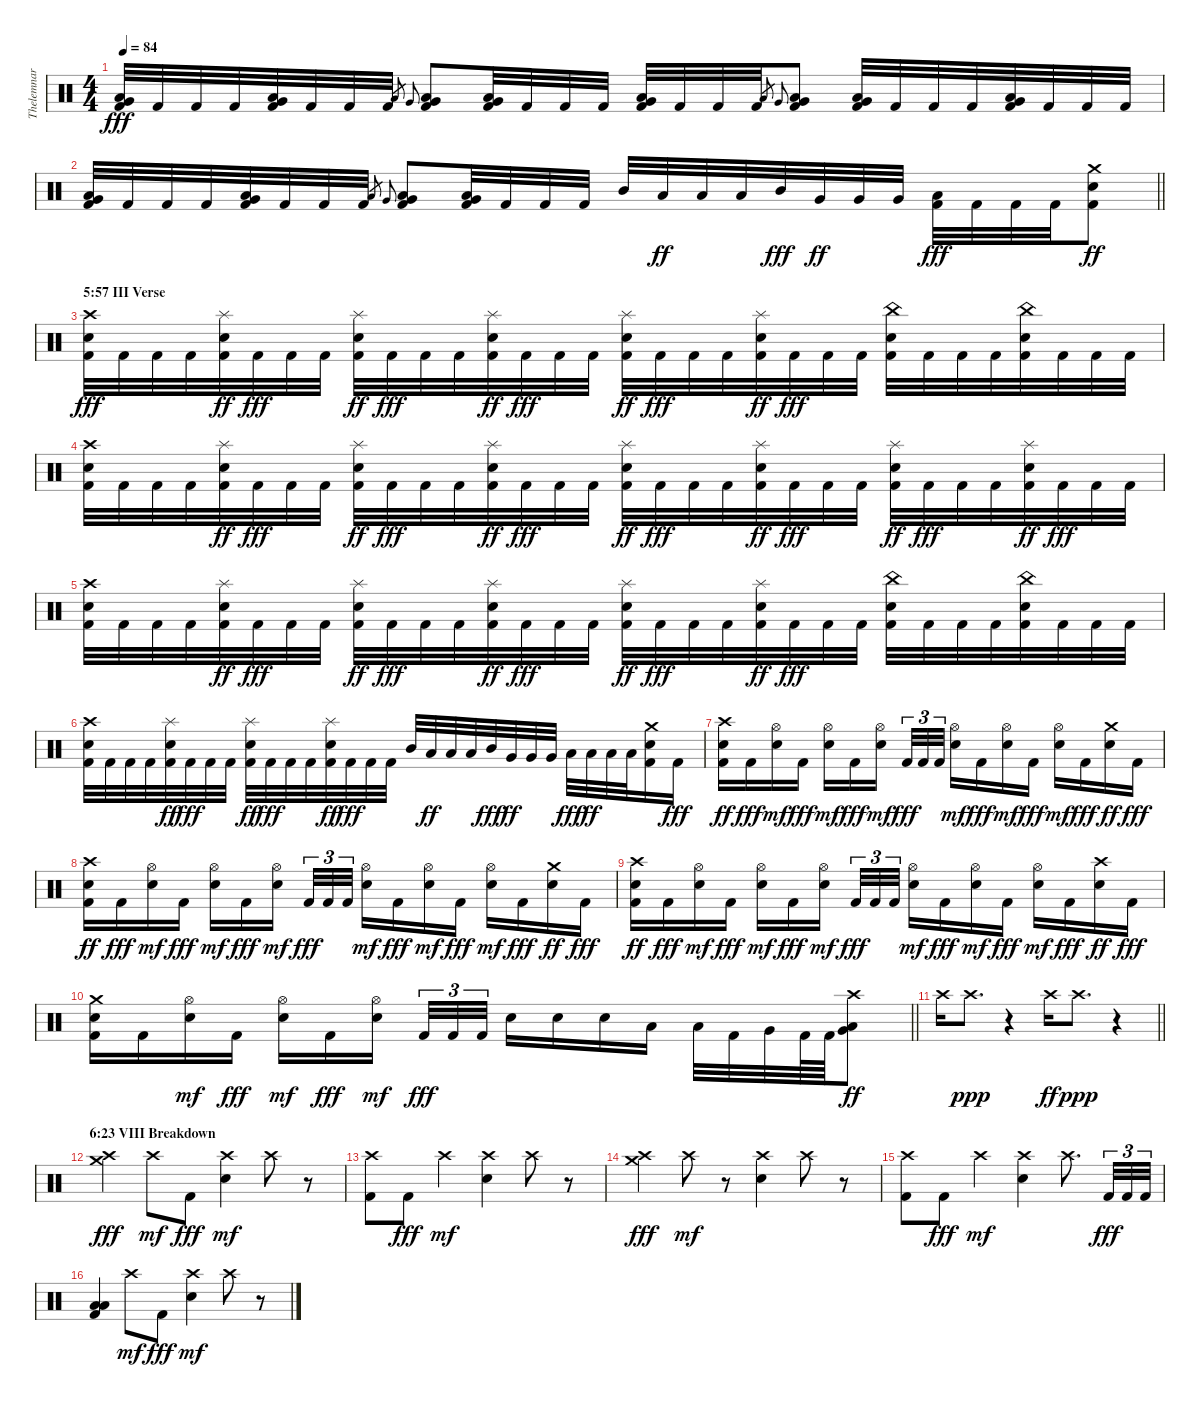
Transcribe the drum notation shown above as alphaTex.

\track ("Thelemnar (Drums)" "Thelemnar ") {instrument percussion}
\staff {score}
\articulation defaults
\ts (4 4)
\tempo 84
\clef neutral
\ks c
("Kick (hit) 2" "Low Floor Tom (hit)" "Very Low Tom (hit)").32{dy fff} "Kick (hit) 2".32 "Kick (hit) 2".32 "Kick (hit) 2".32 ("Kick (hit) 2" "Low Floor Tom (hit)" "Very Low Tom (hit)").32 "Kick (hit) 2".32 "Kick (hit) 2".32 "Kick (hit) 2".32 "Low Tom (hit)".16{gr} "Very Low Tom (hit)".16{gr onbeat} ("Kick (hit) 2" "Low Tom (hit)" "Very Low Tom (hit)").8 ("Kick (hit) 2" "Low Floor Tom (hit)" "Very Low Tom (hit)").32 "Kick (hit) 2".32 "Kick (hit) 2".32 "Kick (hit) 2".32 ("Kick (hit) 2" "Low Floor Tom (hit)" "Very Low Tom (hit)").32 "Kick (hit) 2".32 "Kick (hit) 2".32 "Kick (hit) 2".32 "Low Tom (hit)".16{gr} "Very Low Tom (hit)".16{gr onbeat} ("Kick (hit) 2" "Low Tom (hit)" "Very Low Tom (hit)").8 ("Kick (hit) 2" "Low Floor Tom (hit)" "Very Low Tom (hit)").32 "Kick (hit) 2".32 "Kick (hit) 2".32 "Kick (hit) 2".32 ("Kick (hit) 2" "Low Tom (hit)" "Very Low Tom (hit)").32 "Kick (hit) 2".32 "Kick (hit) 2".32 "Kick (hit) 2".32 |
\barLineRight lightlight
("Kick (hit) 2" "Low Floor Tom (hit)" "Very Low Tom (hit)").32 "Kick (hit) 2".32 "Kick (hit) 2".32 "Kick (hit) 2".32 ("Kick (hit) 2" "Low Floor Tom (hit)" "Very Low Tom (hit)").32 "Kick (hit) 2".32 "Kick (hit) 2".32 "Kick (hit) 2".32 "Low Tom (hit)".16{gr} "Very Low Tom (hit)".16{gr onbeat} ("Kick (hit) 2" "Low Tom (hit)" "Very Low Tom (hit)").8 ("Kick (hit) 2" "Low Floor Tom (hit)" "Very Low Tom (hit)").32 "Kick (hit) 2".32 "Kick (hit) 2".32 "Kick (hit) 2".32 "Mid Tom (hit)".32 "Low Tom (hit)".32{dy ff} "Low Tom (hit)".32 "Low Tom (hit)".32 "Mid Tom (hit)".32{dy fff} "Very Low Tom (hit)".32{dy ff} "Very Low Tom (hit)".32 "Very Low Tom (hit)".32 ("Kick (hit) 2" "Low Tom (hit)").32{dy fff} "Kick (hit) 2".32 "Kick (hit) 2".32 "Kick (hit) 2".32 ("Kick (hit) 2" "Electric Snare (hit)" "Crash medium (hit)").8{dy ff} |
\section ("" "5:57 III Verse")
("Kick (hit) 2" "Electric Snare (hit)" "Crash high (hit)").32{dy fff} "Kick (hit) 2".32 "Kick (hit) 2".32 "Kick (hit) 2".32 ("Kick (hit) 2" "Electric Snare (hit)" "Splash (hit)").32{dy ff} "Kick (hit) 2".32{dy fff} "Kick (hit) 2".32 "Kick (hit) 2".32 ("Kick (hit) 2" "Electric Snare (hit)" "Splash (hit)").32{dy ff} "Kick (hit) 2".32{dy fff} "Kick (hit) 2".32 "Kick (hit) 2".32 ("Kick (hit) 2" "Electric Snare (hit)" "Splash (hit)").32{dy ff} "Kick (hit) 2".32{dy fff} "Kick (hit) 2".32 "Kick (hit) 2".32 ("Kick (hit) 2" "Electric Snare (hit)" "Splash (hit)").32{dy ff} "Kick (hit) 2".32{dy fff} "Kick (hit) 2".32 "Kick (hit) 2".32 ("Kick (hit) 2" "Electric Snare (hit)" "Splash (hit)").32{dy ff} "Kick (hit) 2".32{dy fff} "Kick (hit) 2".32 "Kick (hit) 2".32 ("Kick (hit) 2" "Electric Snare (hit)" "China (hit)").32 "Kick (hit) 2".32 "Kick (hit) 2".32 "Kick (hit) 2".32 ("Kick (hit) 2" "Electric Snare (hit)" "China (hit)").32 "Kick (hit) 2".32 "Kick (hit) 2".32 "Kick (hit) 2".32 |
("Kick (hit) 2" "Electric Snare (hit)" "Crash high (hit)").32 "Kick (hit) 2".32 "Kick (hit) 2".32 "Kick (hit) 2".32 ("Kick (hit) 2" "Electric Snare (hit)" "Splash (hit)").32{dy ff} "Kick (hit) 2".32{dy fff} "Kick (hit) 2".32 "Kick (hit) 2".32 ("Kick (hit) 2" "Electric Snare (hit)" "Splash (hit)").32{dy ff} "Kick (hit) 2".32{dy fff} "Kick (hit) 2".32 "Kick (hit) 2".32 ("Kick (hit) 2" "Electric Snare (hit)" "Splash (hit)").32{dy ff} "Kick (hit) 2".32{dy fff} "Kick (hit) 2".32 "Kick (hit) 2".32 ("Kick (hit) 2" "Electric Snare (hit)" "Splash (hit)").32{dy ff} "Kick (hit) 2".32{dy fff} "Kick (hit) 2".32 "Kick (hit) 2".32 ("Kick (hit) 2" "Electric Snare (hit)" "Splash (hit)").32{dy ff} "Kick (hit) 2".32{dy fff} "Kick (hit) 2".32 "Kick (hit) 2".32 ("Kick (hit) 2" "Electric Snare (hit)" "Splash (hit)").32{dy ff} "Kick (hit) 2".32{dy fff} "Kick (hit) 2".32 "Kick (hit) 2".32 ("Kick (hit) 2" "Electric Snare (hit)" "Splash (hit)").32{dy ff} "Kick (hit) 2".32{dy fff} "Kick (hit) 2".32 "Kick (hit) 2".32 |
("Kick (hit) 2" "Electric Snare (hit)" "Crash high (hit)").32 "Kick (hit) 2".32 "Kick (hit) 2".32 "Kick (hit) 2".32 ("Kick (hit) 2" "Electric Snare (hit)" "Splash (hit)").32{dy ff} "Kick (hit) 2".32{dy fff} "Kick (hit) 2".32 "Kick (hit) 2".32 ("Kick (hit) 2" "Electric Snare (hit)" "Splash (hit)").32{dy ff} "Kick (hit) 2".32{dy fff} "Kick (hit) 2".32 "Kick (hit) 2".32 ("Kick (hit) 2" "Electric Snare (hit)" "Splash (hit)").32{dy ff} "Kick (hit) 2".32{dy fff} "Kick (hit) 2".32 "Kick (hit) 2".32 ("Kick (hit) 2" "Electric Snare (hit)" "Splash (hit)").32{dy ff} "Kick (hit) 2".32{dy fff} "Kick (hit) 2".32 "Kick (hit) 2".32 ("Kick (hit) 2" "Electric Snare (hit)" "Splash (hit)").32{dy ff} "Kick (hit) 2".32{dy fff} "Kick (hit) 2".32 "Kick (hit) 2".32 ("Kick (hit) 2" "Electric Snare (hit)" "China (hit)").32 "Kick (hit) 2".32 "Kick (hit) 2".32 "Kick (hit) 2".32 ("Kick (hit) 2" "Electric Snare (hit)" "China (hit)").32 "Kick (hit) 2".32 "Kick (hit) 2".32 "Kick (hit) 2".32 |
("Kick (hit) 2" "Electric Snare (hit)" "Crash high (hit)").32 "Kick (hit) 2".32 "Kick (hit) 2".32 "Kick (hit) 2".32 ("Kick (hit) 2" "Electric Snare (hit)" "Splash (hit)").32{dy ff} "Kick (hit) 2".32{dy fff} "Kick (hit) 2".32 "Kick (hit) 2".32 ("Kick (hit) 2" "Electric Snare (hit)" "Splash (hit)").32{dy ff} "Kick (hit) 2".32{dy fff} "Kick (hit) 2".32 "Kick (hit) 2".32 ("Kick (hit) 2" "Electric Snare (hit)" "Splash (hit)").32{dy ff} "Kick (hit) 2".32{dy fff} "Kick (hit) 2".32 "Kick (hit) 2".32 "Mid Tom (hit)".32 "Low Tom (hit)".32{dy ff} "Low Tom (hit)".32 "Low Tom (hit)".32 "Mid Tom (hit)".32{dy fff} "Very Low Tom (hit)".32{dy ff} "Very Low Tom (hit)".32 "Very Low Tom (hit)".32 "Low Tom (hit)".32{dy fff} "Low Floor Tom (hit)".32{dy ff} "Low Floor Tom (hit)".32 "Low Floor Tom (hit)".32 ("Kick (hit) 2" "Electric Snare (hit)" "Crash medium (hit)").16 "Kick (hit) 2".16{dy fff} |
("Kick (hit) 2" "Electric Snare (hit)" "Crash high (hit)").16{dy ff} "Kick (hit) 2".16{dy fff} ("Electric Snare (hit)" "Hi-Hat (open)").16{dy mf} "Kick (hit) 2".16{dy fff} ("Electric Snare (hit)" "Hi-Hat (open)").16{dy mf} "Kick (hit) 2".16{dy fff} ("Electric Snare (hit)" "Hi-Hat (open)").16{dy mf beam splitsecondary} "Kick (hit) 2".32{tu (3 2) dy fff} "Kick (hit) 2".32{tu (3 2)} "Kick (hit) 2".32{tu (3 2)} ("Electric Snare (hit)" "Hi-Hat (open)").16{dy mf} "Kick (hit) 2".16{dy fff} ("Electric Snare (hit)" "Hi-Hat (open)").16{dy mf} "Kick (hit) 2".16{dy fff} ("Electric Snare (hit)" "Hi-Hat (open)").16{dy mf} "Kick (hit) 2".16{dy fff} ("Electric Snare (hit)" "Crash medium (hit)").16{dy ff} "Kick (hit) 2".16{dy fff} |
("Kick (hit) 2" "Electric Snare (hit)" "Crash high (hit)").16{dy ff} "Kick (hit) 2".16{dy fff} ("Electric Snare (hit)" "Hi-Hat (open)").16{dy mf} "Kick (hit) 2".16{dy fff} ("Electric Snare (hit)" "Hi-Hat (open)").16{dy mf} "Kick (hit) 2".16{dy fff} ("Electric Snare (hit)" "Hi-Hat (open)").16{dy mf beam splitsecondary} "Kick (hit) 2".32{tu (3 2) dy fff} "Kick (hit) 2".32{tu (3 2)} "Kick (hit) 2".32{tu (3 2)} ("Electric Snare (hit)" "Hi-Hat (open)").16{dy mf} "Kick (hit) 2".16{dy fff} ("Electric Snare (hit)" "Hi-Hat (open)").16{dy mf} "Kick (hit) 2".16{dy fff} ("Electric Snare (hit)" "Hi-Hat (open)").16{dy mf} "Kick (hit) 2".16{dy fff} ("Electric Snare (hit)" "Crash medium (hit)").16{dy ff} "Kick (hit) 2".16{dy fff} |
("Kick (hit) 2" "Electric Snare (hit)" "Crash high (hit)").16{dy ff} "Kick (hit) 2".16{dy fff} ("Electric Snare (hit)" "Hi-Hat (open)").16{dy mf} "Kick (hit) 2".16{dy fff} ("Electric Snare (hit)" "Hi-Hat (open)").16{dy mf} "Kick (hit) 2".16{dy fff} ("Electric Snare (hit)" "Hi-Hat (open)").16{dy mf beam splitsecondary} "Kick (hit) 2".32{tu (3 2) dy fff} "Kick (hit) 2".32{tu (3 2)} "Kick (hit) 2".32{tu (3 2)} ("Electric Snare (hit)" "Hi-Hat (open)").16{dy mf} "Kick (hit) 2".16{dy fff} ("Electric Snare (hit)" "Hi-Hat (open)").16{dy mf} "Kick (hit) 2".16{dy fff} ("Electric Snare (hit)" "Hi-Hat (open)").16{dy mf} "Kick (hit) 2".16{dy fff} ("Electric Snare (hit)" "Crash high (hit)").16{dy ff} "Kick (hit) 2".16{dy fff} |
\barLineRight lightlight
("Kick (hit) 2" "Electric Snare (hit)" "Crash medium (hit)").16 "Kick (hit) 2".16 ("Electric Snare (hit)" "Hi-Hat (open)").16{dy mf} "Kick (hit) 2".16{dy fff} ("Electric Snare (hit)" "Hi-Hat (open)").16{dy mf} "Kick (hit) 2".16{dy fff} ("Electric Snare (hit)" "Hi-Hat (open)").16{dy mf beam splitsecondary} "Kick (hit) 2".32{tu (3 2) dy fff} "Kick (hit) 2".32{tu (3 2)} "Kick (hit) 2".32{tu (3 2)} "Electric Snare (hit)".16 "Electric Snare (hit)".16 "Electric Snare (hit)".16 "Low Tom (hit)".16 "Low Tom (hit)".32 "Kick (hit) 2".32 "Very Low Tom (hit)".32 "Kick (hit) 2".64 "Kick (hit) 2".64 ("Low Floor Tom (hit)" "Very Low Tom (hit)" "Crash high (hit)").8{dy ff} |
\barLineRight lightlight "Crash high (hit)".16 "Crash high (hit)".8{d dy ppp}
r.4 "Crash high (hit)".16{dy ff} "Crash high (hit)".8{d dy ppp} r.4 |
\section ("" "6:23 VIII Breakdown")
("Crash medium (hit)" "Crash high (hit)").4{dy fff} "Crash high (hit)".8{dy mf} "Kick (hit) 2".8{dy fff} ("Electric Snare (hit)" "Crash high (hit)").4{dy mf} "Crash high (hit)".8 r.8 |
("Kick (hit) 2" "Crash high (hit)").8 "Kick (hit) 2".8{dy fff} "Crash high (hit)".4{dy mf} ("Electric Snare (hit)" "Crash high (hit)").4 "Crash high (hit)".8 r.8 |
("Crash medium (hit)" "Crash high (hit)").4{dy fff} "Crash high (hit)".8{dy mf} r.8 ("Electric Snare (hit)" "Crash high (hit)").4 "Crash high (hit)".8 r.8 |
("Kick (hit) 2" "Crash high (hit)").8 "Kick (hit) 2".8{dy fff} "Crash high (hit)".4{dy mf} ("Electric Snare (hit)" "Crash high (hit)").4 "Crash high (hit)".8{d} "Kick (hit) 2".32{tu (3 2) dy fff} "Kick (hit) 2".32{tu (3 2)} "Kick (hit) 2".32{tu (3 2)} |
("Kick (hit) 2" "Low Floor Tom (hit)" "Low Tom (hit)").4 "Crash high (hit)".8{dy mf} "Kick (hit) 2".8{dy fff} ("Electric Snare (hit)" "Crash high (hit)").4{dy mf} "Crash high (hit)".8 r.8
